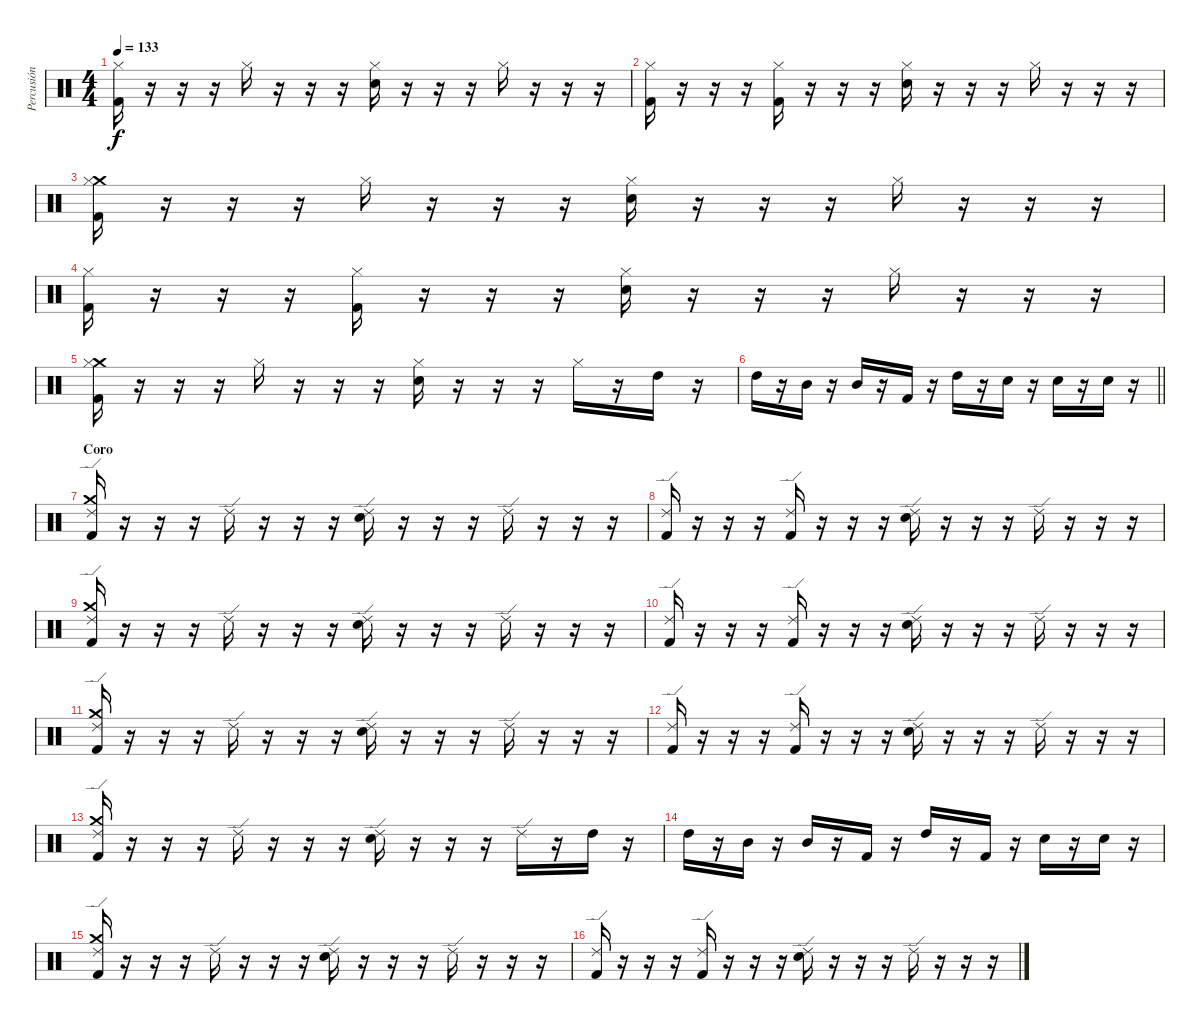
\track ("Percusión" "Percusión") {instrument percussion}
\staff {score}
\articulation defaults
\ts (4 4)
\tempo 133
\clef neutral
\ks c
("Hi-Hat (closed)" "Kick (hit) 2").16{dy f} r.16 r.16 r.16 "Hi-Hat (closed)".16 r.16 r.16 r.16 ("Hi-Hat (closed)" "Snare (hit) 2").16 r.16 r.16 r.16 "Hi-Hat (closed)".16 r.16 r.16 r.16 |
("Hi-Hat (closed)" "Kick (hit) 2").16 r.16 r.16 r.16 ("Hi-Hat (closed)" "Kick (hit) 2").16 r.16 r.16 r.16 ("Hi-Hat (closed)" "Snare (hit) 2").16 r.16 r.16 r.16 "Hi-Hat (closed)".16 r.16 r.16 r.16 |
("Crash medium (hit)" "Hi-Hat (closed)" "Kick (hit) 2").16 r.16 r.16 r.16 "Hi-Hat (closed)".16 r.16 r.16 r.16 ("Hi-Hat (closed)" "Snare (hit) 2").16 r.16 r.16 r.16 "Hi-Hat (closed)".16 r.16 r.16 r.16 |
("Hi-Hat (closed)" "Kick (hit) 2").16 r.16 r.16 r.16 ("Hi-Hat (closed)" "Kick (hit) 2").16 r.16 r.16 r.16 ("Hi-Hat (closed)" "Snare (hit) 2").16 r.16 r.16 r.16 "Hi-Hat (closed)".16 r.16 r.16 r.16 |
("Crash medium (hit)" "Hi-Hat (closed)" "Kick (hit) 2").16 r.16 r.16 r.16 "Hi-Hat (closed)".16 r.16 r.16 r.16 ("Hi-Hat (closed)" "Snare (hit) 2").16 r.16 r.16 r.16 "Hi-Hat (closed)".16 r.16 "High Tom (hit)".16 r.16 |
\barLineRight lightlight "High Tom (hit)".16
r.16 "Mid Tom (hit)".16 r.16 "Mid Tom (hit)".16 r.16 "Kick (hit) 2".16 r.16 "High Tom (hit)".16 r.16 "Snare (hit) 2".16 r.16 "Snare (hit) 2".16 r.16 "Snare (hit) 2".16 r.16 |
\section ("" "Coro")
("Crash medium (hit)" "Ride (edge) 2" "Kick (hit) 2").16 r.16 r.16 r.16 "Ride (edge) 2".16 r.16 r.16 r.16 ("Ride (edge) 2" "Snare (hit) 2").16 r.16 r.16 r.16 "Ride (edge) 2".16 r.16 r.16 r.16 |
("Ride (edge) 2" "Kick (hit) 2").16 r.16 r.16 r.16 ("Ride (edge) 2" "Kick (hit) 2").16 r.16 r.16 r.16 ("Ride (edge) 2" "Snare (hit) 2").16 r.16 r.16 r.16 "Ride (edge) 2".16 r.16 r.16 r.16 |
("Crash medium (hit)" "Ride (edge) 2" "Kick (hit) 2").16 r.16 r.16 r.16 "Ride (edge) 2".16 r.16 r.16 r.16 ("Ride (edge) 2" "Snare (hit) 2").16 r.16 r.16 r.16 "Ride (edge) 2".16 r.16 r.16 r.16 |
("Ride (edge) 2" "Kick (hit) 2").16 r.16 r.16 r.16 ("Ride (edge) 2" "Kick (hit) 2").16 r.16 r.16 r.16 ("Ride (edge) 2" "Snare (hit) 2").16 r.16 r.16 r.16 "Ride (edge) 2".16 r.16 r.16 r.16 |
("Crash medium (hit)" "Ride (edge) 2" "Kick (hit) 2").16 r.16 r.16 r.16 "Ride (edge) 2".16 r.16 r.16 r.16 ("Ride (edge) 2" "Snare (hit) 2").16 r.16 r.16 r.16 "Ride (edge) 2".16 r.16 r.16 r.16 |
("Ride (edge) 2" "Kick (hit) 2").16 r.16 r.16 r.16 ("Ride (edge) 2" "Kick (hit) 2").16 r.16 r.16 r.16 ("Ride (edge) 2" "Snare (hit) 2").16 r.16 r.16 r.16 "Ride (edge) 2".16 r.16 r.16 r.16 |
("Crash medium (hit)" "Ride (edge) 2" "Kick (hit) 2").16 r.16 r.16 r.16 "Ride (edge) 2".16 r.16 r.16 r.16 ("Ride (edge) 2" "Snare (hit) 2").16 r.16 r.16 r.16 "Ride (edge) 2".16 r.16 "High Tom (hit)".16 r.16 |
"High Tom (hit)".16 r.16 "Mid Tom (hit)".16 r.16 "Mid Tom (hit)".16 r.16 "Kick (hit) 2".16 r.16 "High Tom (hit)".16 r.16 "Kick (hit) 2".16 r.16 "Snare (hit) 2".16 r.16 "Snare (hit) 2".16 r.16 |
("Crash medium (hit)" "Ride (edge) 2" "Kick (hit) 2").16 r.16 r.16 r.16 "Ride (edge) 2".16 r.16 r.16 r.16 ("Ride (edge) 2" "Snare (hit) 2").16 r.16 r.16 r.16 "Ride (edge) 2".16 r.16 r.16 r.16 |
("Ride (edge) 2" "Kick (hit) 2").16 r.16 r.16 r.16 ("Ride (edge) 2" "Kick (hit) 2").16 r.16 r.16 r.16 ("Ride (edge) 2" "Snare (hit) 2").16 r.16 r.16 r.16 "Ride (edge) 2".16 r.16 r.16 r.16
